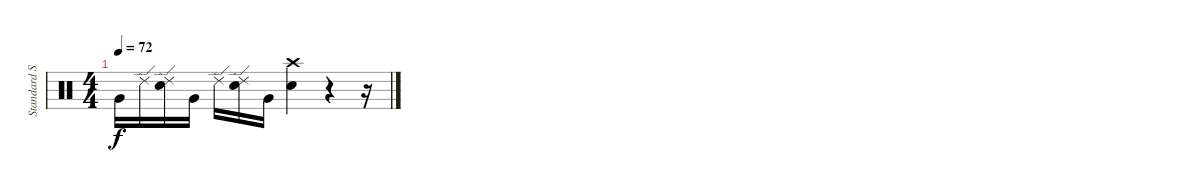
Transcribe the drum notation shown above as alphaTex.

\track ("Standard Set" "Standard S") {instrument percussion}
\staff {score}
\articulation defaults
\ts (4 4)
\tempo 72
\clef neutral
\ks c "Very Low Tom (hit)".16{dy f} "Ride (edge) 2".16
("Snare (hit)" "Ride (edge) 2").16 "Very Low Tom (hit)".16 "Ride (edge) 2".16 ("Snare (hit)" "Ride (edge) 2").16 "Very Low Tom (hit)".16 ("Snare (hit)" "Crash high (hit)").4 r.4 r.16
